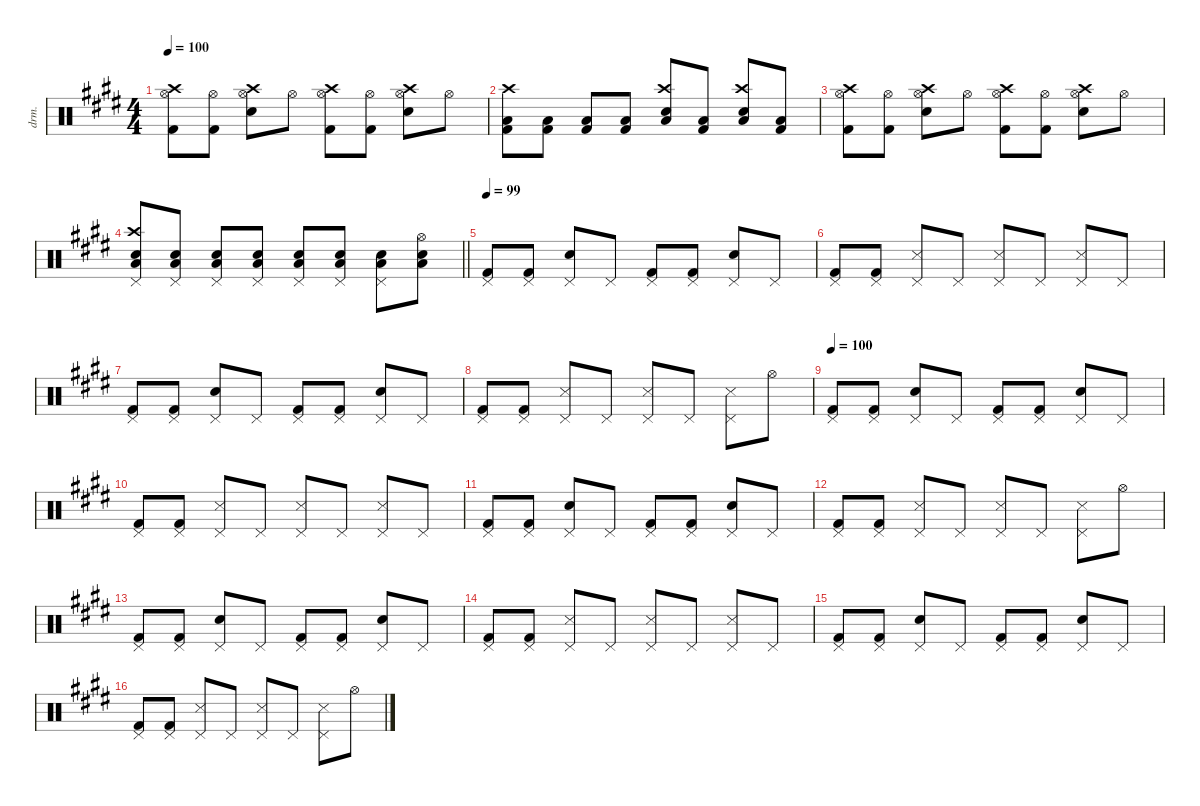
\defaultSystemsLayout 4
\hideDynamics
\bracketExtendMode nobrackets
\otherSystemsTrackNameOrientation horizontal
\track ("Percussion" "drm.") {instrument percussion}
\staff {score}
\articulation defaults
\ts (4 4)
\tempo 100
\clef neutral
\ks c#minor
("Kick (hit) 2"{acc forcenatural} "Hi-Hat (open)"{acc forcenatural} "Crash high (hit)"{acc forcenatural}).8{dy f beam Down} ("Kick (hit) 2"{acc forcenatural} "Hi-Hat (open)"{acc forcenatural}).8{beam Down} ("Snare (hit) 2"{acc forcenatural} "Hi-Hat (open)"{acc forcenatural} "Crash high (hit)"{acc forcenatural}).8{beam Down} "Hi-Hat (open)"{acc forcenatural}.8{beam Down} ("Kick (hit) 2"{acc forcenatural} "Hi-Hat (open)"{acc forcenatural} "Crash high (hit)"{acc forcenatural}).8{beam Down} ("Kick (hit) 2"{acc forcenatural} "Hi-Hat (open)"{acc forcenatural}).8{beam Down} ("Snare (hit) 2"{acc forcenatural} "Hi-Hat (open)"{acc forcenatural} "Crash high (hit)"{acc forcenatural}).8{beam Down} "Hi-Hat (open)"{acc forcenatural}.8{beam Down} |
("Kick (hit) 2"{acc forcenatural} "Low Tom (hit)"{acc forcenatural} "Crash high (hit)"{acc forcenatural}).8{beam Down} ("Kick (hit) 2"{acc forcenatural} "Low Tom (hit)"{acc forcenatural}).8{beam Down} ("Kick (hit) 2"{acc forcenatural} "Low Tom (hit)"{acc forcenatural}).8{beam Up} ("Kick (hit) 2"{acc forcenatural} "Low Tom (hit)"{acc forcenatural}).8{beam Up} ("Snare (hit) 2"{acc forcenatural} "Low Tom (hit)"{acc forcenatural} "Crash high (hit)"{acc forcenatural}).8{beam Up} ("Kick (hit) 2"{acc forcenatural} "Low Tom (hit)"{acc forcenatural}).8{beam Up} ("Snare (hit) 2"{acc forcenatural} "Low Tom (hit)"{acc forcenatural} "Crash high (hit)"{acc forcenatural}).8{beam Up} ("Kick (hit) 2"{acc forcenatural} "Low Tom (hit)"{acc forcenatural}).8{beam Up} |
("Kick (hit) 2"{acc forcenatural} "Hi-Hat (open)"{acc forcenatural} "Crash high (hit)"{acc forcenatural}).8{beam Down} ("Kick (hit) 2"{acc forcenatural} "Hi-Hat (open)"{acc forcenatural}).8{beam Down} ("Snare (hit) 2"{acc forcenatural} "Hi-Hat (open)"{acc forcenatural} "Crash high (hit)"{acc forcenatural}).8{beam Down} "Hi-Hat (open)"{acc forcenatural}.8{beam Down} ("Kick (hit) 2"{acc forcenatural} "Hi-Hat (open)"{acc forcenatural} "Crash high (hit)"{acc forcenatural}).8{beam Down} ("Kick (hit) 2"{acc forcenatural} "Hi-Hat (open)"{acc forcenatural}).8{beam Down} ("Snare (hit) 2"{acc forcenatural} "Hi-Hat (open)"{acc forcenatural} "Crash high (hit)"{acc forcenatural}).8{beam Down} "Hi-Hat (open)"{acc forcenatural}.8{beam Down} |
\barLineRight lightlight
("Snare (hit) 2"{acc forcenatural} "Low Tom (hit)"{acc forcenatural} "Crash high (hit)"{acc forcenatural} "Pedal Hi-Hat (hit)"{acc forcenatural}).8{dy mp beam Up} ("Snare (hit) 2"{acc forcenatural} "Low Tom (hit)"{acc forcenatural} "Pedal Hi-Hat (hit)"{acc forcenatural}).8{beam Up} ("Snare (hit) 2"{acc forcenatural} "Low Tom (hit)"{acc forcenatural} "Pedal Hi-Hat (hit)"{acc forcenatural}).8{dy mf beam Up} ("Snare (hit) 2"{acc forcenatural} "Low Tom (hit)"{acc forcenatural} "Pedal Hi-Hat (hit)"{acc forcenatural}).8{beam Up} ("Snare (hit) 2"{acc forcenatural} "Low Tom (hit)"{acc forcenatural} "Pedal Hi-Hat (hit)"{acc forcenatural}).8{dy f beam Up} ("Snare (hit) 2"{acc forcenatural} "Low Tom (hit)"{acc forcenatural} "Pedal Hi-Hat (hit)"{acc forcenatural}).8{beam Up} ("Snare (hit) 2"{acc forcenatural} "Low Tom (hit)"{acc forcenatural} "Pedal Hi-Hat (hit)"{acc forcenatural}).8{beam Down} ("Snare (hit) 2"{acc forcenatural} "Low Tom (hit)"{acc forcenatural} "Hi-Hat (open)"{acc forcenatural}).8{beam Down} |
\tempo 99
("Kick (hit) 2"{acc forcenatural} "Pedal Hi-Hat (hit)"{acc forcenatural}).8{beam Up} ("Kick (hit) 2"{acc forcenatural} "Pedal Hi-Hat (hit)"{acc forcenatural}).8{beam Up} ("Snare (hit) 2"{acc forcenatural} "Pedal Hi-Hat (hit)"{acc forcenatural}).8{beam Up} "Pedal Hi-Hat (hit)"{acc forcenatural}.8{beam Up} ("Kick (hit) 2"{acc forcenatural} "Pedal Hi-Hat (hit)"{acc forcenatural}).8{beam Up} ("Kick (hit) 2"{acc forcenatural} "Pedal Hi-Hat (hit)"{acc forcenatural}).8{beam Up} ("Snare (hit) 2"{acc forcenatural} "Pedal Hi-Hat (hit)"{acc forcenatural}).8{beam Up} "Pedal Hi-Hat (hit)"{acc forcenatural}.8{beam Up} |
("Kick (hit) 2"{acc forcenatural} "Pedal Hi-Hat (hit)"{acc forcenatural}).8{beam Up} ("Kick (hit) 2"{acc forcenatural} "Pedal Hi-Hat (hit)"{acc forcenatural}).8{beam Up} ("Metronome (hit)"{acc forcenatural} "Pedal Hi-Hat (hit)"{acc forcenatural}).8{beam Up} "Pedal Hi-Hat (hit)"{acc forcenatural}.8{beam Up} ("Metronome (hit)"{acc forcenatural} "Pedal Hi-Hat (hit)"{acc forcenatural}).8{beam Up} "Pedal Hi-Hat (hit)"{acc forcenatural}.8{beam Up} ("Metronome (hit)"{acc forcenatural} "Pedal Hi-Hat (hit)"{acc forcenatural}).8{beam Up} "Pedal Hi-Hat (hit)"{acc forcenatural}.8{beam Up} |
("Kick (hit) 2"{acc forcenatural} "Pedal Hi-Hat (hit)"{acc forcenatural}).8{beam Up} ("Kick (hit) 2"{acc forcenatural} "Pedal Hi-Hat (hit)"{acc forcenatural}).8{beam Up} ("Snare (hit) 2"{acc forcenatural} "Pedal Hi-Hat (hit)"{acc forcenatural}).8{beam Up} "Pedal Hi-Hat (hit)"{acc forcenatural}.8{beam Up} ("Kick (hit) 2"{acc forcenatural} "Pedal Hi-Hat (hit)"{acc forcenatural}).8{beam Up} ("Kick (hit) 2"{acc forcenatural} "Pedal Hi-Hat (hit)"{acc forcenatural}).8{beam Up} ("Snare (hit) 2"{acc forcenatural} "Pedal Hi-Hat (hit)"{acc forcenatural}).8{beam Up} "Pedal Hi-Hat (hit)"{acc forcenatural}.8{beam Up} |
("Kick (hit) 2"{acc forcenatural} "Pedal Hi-Hat (hit)"{acc forcenatural}).8{beam Up} ("Kick (hit) 2"{acc forcenatural} "Pedal Hi-Hat (hit)"{acc forcenatural}).8{beam Up} ("Metronome (hit)"{acc forcenatural} "Pedal Hi-Hat (hit)"{acc forcenatural}).8{beam Up} "Pedal Hi-Hat (hit)"{acc forcenatural}.8{beam Up} ("Metronome (hit)"{acc forcenatural} "Pedal Hi-Hat (hit)"{acc forcenatural}).8{beam Up} "Pedal Hi-Hat (hit)"{acc forcenatural}.8{beam Up} ("Metronome (hit)"{acc forcenatural} "Pedal Hi-Hat (hit)"{acc forcenatural}).8{beam Down} "Hi-Hat (open)"{acc forcenatural}.8{beam Down} |
\tempo 100
("Kick (hit) 2"{acc forcenatural} "Pedal Hi-Hat (hit)"{acc forcenatural}).8{beam Up} ("Kick (hit) 2"{acc forcenatural} "Pedal Hi-Hat (hit)"{acc forcenatural}).8{beam Up} ("Snare (hit) 2"{acc forcenatural} "Pedal Hi-Hat (hit)"{acc forcenatural}).8{beam Up} "Pedal Hi-Hat (hit)"{acc forcenatural}.8{beam Up} ("Kick (hit) 2"{acc forcenatural} "Pedal Hi-Hat (hit)"{acc forcenatural}).8{beam Up} ("Kick (hit) 2"{acc forcenatural} "Pedal Hi-Hat (hit)"{acc forcenatural}).8{beam Up} ("Snare (hit) 2"{acc forcenatural} "Pedal Hi-Hat (hit)"{acc forcenatural}).8{beam Up} "Pedal Hi-Hat (hit)"{acc forcenatural}.8{beam Up} |
("Kick (hit) 2"{acc forcenatural} "Pedal Hi-Hat (hit)"{acc forcenatural}).8{beam Up} ("Kick (hit) 2"{acc forcenatural} "Pedal Hi-Hat (hit)"{acc forcenatural}).8{beam Up} ("Metronome (hit)"{acc forcenatural} "Pedal Hi-Hat (hit)"{acc forcenatural}).8{beam Up} "Pedal Hi-Hat (hit)"{acc forcenatural}.8{beam Up} ("Metronome (hit)"{acc forcenatural} "Pedal Hi-Hat (hit)"{acc forcenatural}).8{beam Up} "Pedal Hi-Hat (hit)"{acc forcenatural}.8{beam Up} ("Metronome (hit)"{acc forcenatural} "Pedal Hi-Hat (hit)"{acc forcenatural}).8{beam Up} "Pedal Hi-Hat (hit)"{acc forcenatural}.8{beam Up} |
("Kick (hit) 2"{acc forcenatural} "Pedal Hi-Hat (hit)"{acc forcenatural}).8{beam Up} ("Kick (hit) 2"{acc forcenatural} "Pedal Hi-Hat (hit)"{acc forcenatural}).8{beam Up} ("Snare (hit) 2"{acc forcenatural} "Pedal Hi-Hat (hit)"{acc forcenatural}).8{beam Up} "Pedal Hi-Hat (hit)"{acc forcenatural}.8{beam Up} ("Kick (hit) 2"{acc forcenatural} "Pedal Hi-Hat (hit)"{acc forcenatural}).8{beam Up} ("Kick (hit) 2"{acc forcenatural} "Pedal Hi-Hat (hit)"{acc forcenatural}).8{beam Up} ("Snare (hit) 2"{acc forcenatural} "Pedal Hi-Hat (hit)"{acc forcenatural}).8{beam Up} "Pedal Hi-Hat (hit)"{acc forcenatural}.8{beam Up} |
("Kick (hit) 2"{acc forcenatural} "Pedal Hi-Hat (hit)"{acc forcenatural}).8{beam Up} ("Kick (hit) 2"{acc forcenatural} "Pedal Hi-Hat (hit)"{acc forcenatural}).8{beam Up} ("Metronome (hit)"{acc forcenatural} "Pedal Hi-Hat (hit)"{acc forcenatural}).8{beam Up} "Pedal Hi-Hat (hit)"{acc forcenatural}.8{beam Up} ("Metronome (hit)"{acc forcenatural} "Pedal Hi-Hat (hit)"{acc forcenatural}).8{beam Up} "Pedal Hi-Hat (hit)"{acc forcenatural}.8{beam Up} ("Metronome (hit)"{acc forcenatural} "Pedal Hi-Hat (hit)"{acc forcenatural}).8{beam Down} "Hi-Hat (open)"{acc forcenatural}.8{beam Down} |
("Kick (hit) 2"{acc forcenatural} "Pedal Hi-Hat (hit)"{acc forcenatural}).8{beam Up} ("Kick (hit) 2"{acc forcenatural} "Pedal Hi-Hat (hit)"{acc forcenatural}).8{beam Up} ("Snare (hit) 2"{acc forcenatural} "Pedal Hi-Hat (hit)"{acc forcenatural}).8{beam Up} "Pedal Hi-Hat (hit)"{acc forcenatural}.8{beam Up} ("Kick (hit) 2"{acc forcenatural} "Pedal Hi-Hat (hit)"{acc forcenatural}).8{beam Up} ("Kick (hit) 2"{acc forcenatural} "Pedal Hi-Hat (hit)"{acc forcenatural}).8{beam Up} ("Snare (hit) 2"{acc forcenatural} "Pedal Hi-Hat (hit)"{acc forcenatural}).8{beam Up} "Pedal Hi-Hat (hit)"{acc forcenatural}.8{beam Up} |
("Kick (hit) 2"{acc forcenatural} "Pedal Hi-Hat (hit)"{acc forcenatural}).8{beam Up} ("Kick (hit) 2"{acc forcenatural} "Pedal Hi-Hat (hit)"{acc forcenatural}).8{beam Up} ("Metronome (hit)"{acc forcenatural} "Pedal Hi-Hat (hit)"{acc forcenatural}).8{beam Up} "Pedal Hi-Hat (hit)"{acc forcenatural}.8{beam Up} ("Metronome (hit)"{acc forcenatural} "Pedal Hi-Hat (hit)"{acc forcenatural}).8{beam Up} "Pedal Hi-Hat (hit)"{acc forcenatural}.8{beam Up} ("Metronome (hit)"{acc forcenatural} "Pedal Hi-Hat (hit)"{acc forcenatural}).8{beam Up} "Pedal Hi-Hat (hit)"{acc forcenatural}.8{beam Up} |
("Kick (hit) 2"{acc forcenatural} "Pedal Hi-Hat (hit)"{acc forcenatural}).8{beam Up} ("Kick (hit) 2"{acc forcenatural} "Pedal Hi-Hat (hit)"{acc forcenatural}).8{beam Up} ("Snare (hit) 2"{acc forcenatural} "Pedal Hi-Hat (hit)"{acc forcenatural}).8{beam Up} "Pedal Hi-Hat (hit)"{acc forcenatural}.8{beam Up} ("Kick (hit) 2"{acc forcenatural} "Pedal Hi-Hat (hit)"{acc forcenatural}).8{beam Up} ("Kick (hit) 2"{acc forcenatural} "Pedal Hi-Hat (hit)"{acc forcenatural}).8{beam Up} ("Snare (hit) 2"{acc forcenatural} "Pedal Hi-Hat (hit)"{acc forcenatural}).8{beam Up} "Pedal Hi-Hat (hit)"{acc forcenatural}.8{beam Up} |
("Kick (hit) 2"{acc forcenatural} "Pedal Hi-Hat (hit)"{acc forcenatural}).8{beam Up} ("Kick (hit) 2"{acc forcenatural} "Pedal Hi-Hat (hit)"{acc forcenatural}).8{beam Up} ("Metronome (hit)"{acc forcenatural} "Pedal Hi-Hat (hit)"{acc forcenatural}).8{beam Up} "Pedal Hi-Hat (hit)"{acc forcenatural}.8{beam Up} ("Metronome (hit)"{acc forcenatural} "Pedal Hi-Hat (hit)"{acc forcenatural}).8{beam Up} "Pedal Hi-Hat (hit)"{acc forcenatural}.8{beam Up} ("Metronome (hit)"{acc forcenatural} "Pedal Hi-Hat (hit)"{acc forcenatural}).8{beam Down} "Hi-Hat (open)"{acc forcenatural}.8{beam Down}
